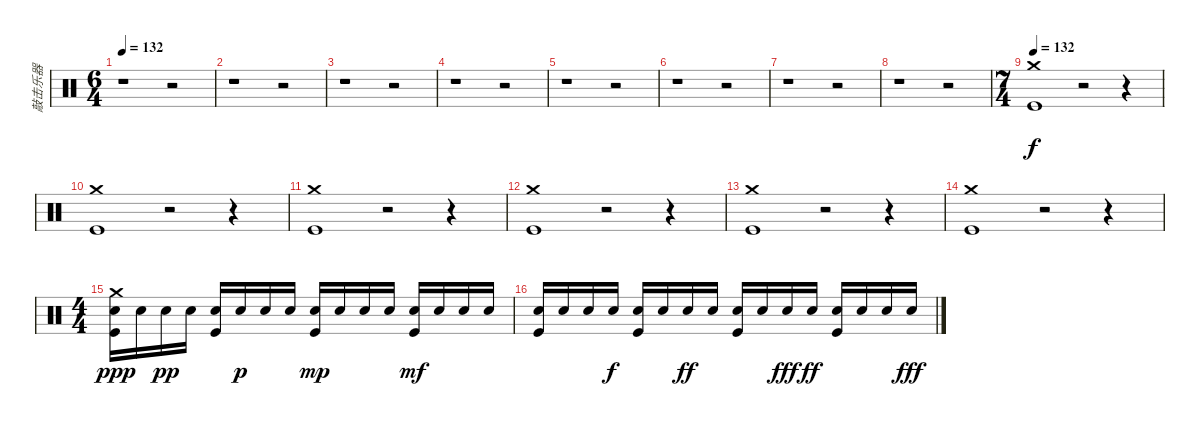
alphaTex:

\track ("敲击乐器" "敲击乐器") {instrument percussion}
\staff {score}
\articulation defaults
\ts (6 4)
\tempo 132
\tempo 50
\tempo 126
\tempo 132
\clef neutral
\ks c
r.1{dy f} r.2 |
r.1 r.2 |
r.1 r.2 |
r.1 r.2 |
r.1 r.2 |
r.1 r.2 |
r.1 r.2 |
r.1 r.2 |
\ts (7 4)
\tempo 132
("Crash medium (hit)" "Kick (hit)").1 r.2 r.4 |
("Crash medium (hit)" "Kick (hit)").1 r.2 r.4 |
("Crash medium (hit)" "Kick (hit)").1 r.2 r.4 |
("Crash medium (hit)" "Kick (hit)").1 r.2 r.4 |
("Crash medium (hit)" "Kick (hit)").1 r.2 r.4 |
("Crash medium (hit)" "Kick (hit)").1 r.2 r.4 |
\ts (4 4)
("Crash medium (hit)" "Snare (hit) 2" "Kick (hit)").16{dy ppp} "Snare (hit) 2".16 "Snare (hit) 2".16{dy pp} "Snare (hit) 2".16 ("Snare (hit) 2" "Kick (hit)").16 "Snare (hit) 2".16{dy p} "Snare (hit) 2".16 "Snare (hit) 2".16 ("Snare (hit) 2" "Kick (hit)").16{dy mp} "Snare (hit) 2".16 "Snare (hit) 2".16 "Snare (hit) 2".16 ("Snare (hit) 2" "Kick (hit)").16{dy mf} "Snare (hit) 2".16 "Snare (hit) 2".16 "Snare (hit) 2".16 |
("Snare (hit) 2" "Kick (hit)").16 "Snare (hit) 2".16 "Snare (hit) 2".16 "Snare (hit) 2".16{dy f} ("Snare (hit) 2" "Kick (hit)").16 "Snare (hit) 2".16 "Snare (hit) 2".16{dy ff} "Snare (hit) 2".16 ("Snare (hit) 2" "Kick (hit)").16 "Snare (hit) 2".16 "Snare (hit) 2".16{dy fff} "Snare (hit) 2".16{dy ff} ("Snare (hit) 2" "Kick (hit)").16 "Snare (hit) 2".16 "Snare (hit) 2".16 "Snare (hit) 2".16{dy fff}
